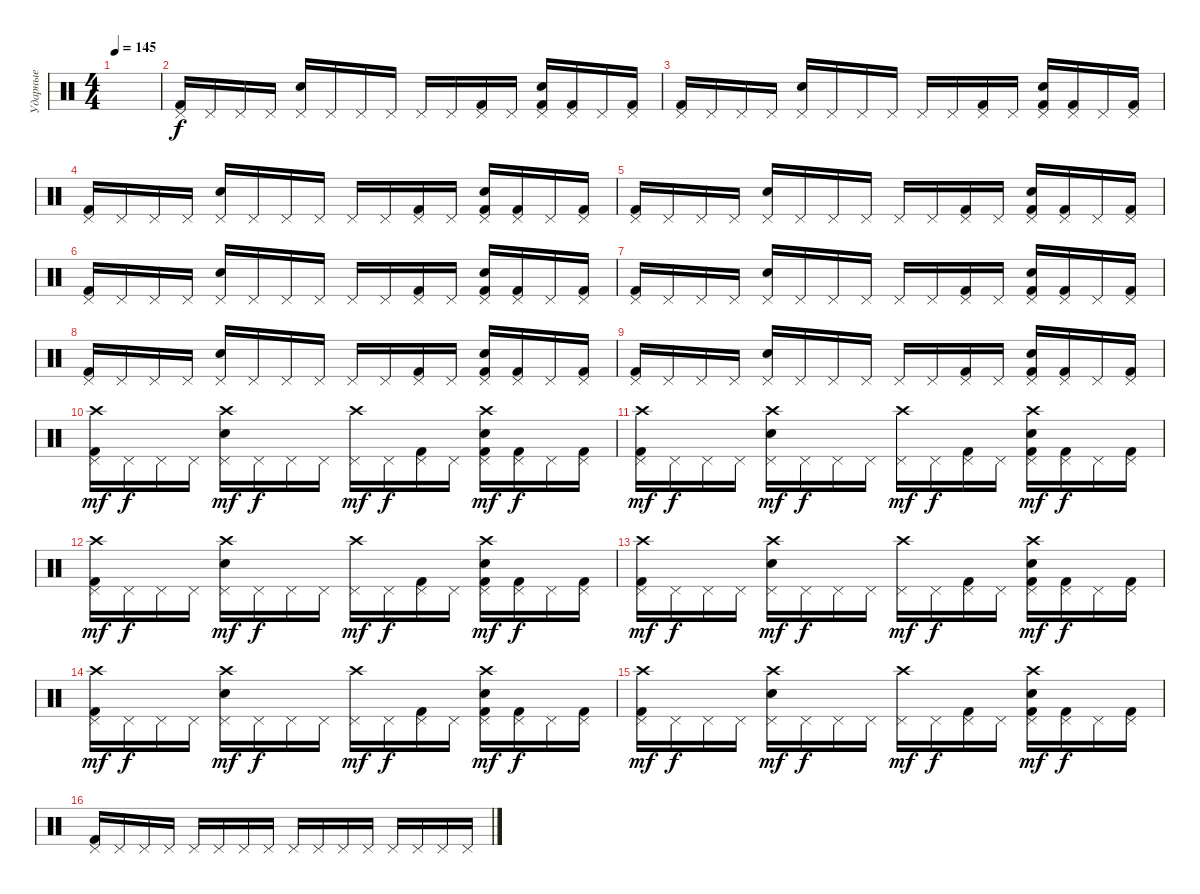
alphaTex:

\track ("Ударные" "Ударные") {instrument percussion}
\staff {score}
\articulation defaults
\ts (4 4)
\tempo 145
\clef neutral
\ks c
|
("Kick (hit) 2" "Pedal Hi-Hat (hit)").16 "Pedal Hi-Hat (hit)".16 "Pedal Hi-Hat (hit)".16 "Pedal Hi-Hat (hit)".16 ("Electric Snare (hit)" "Pedal Hi-Hat (hit)").16 "Pedal Hi-Hat (hit)".16 "Pedal Hi-Hat (hit)".16 "Pedal Hi-Hat (hit)".16 "Pedal Hi-Hat (hit)".16 "Pedal Hi-Hat (hit)".16 ("Kick (hit) 2" "Pedal Hi-Hat (hit)").16 "Pedal Hi-Hat (hit)".16 ("Kick (hit) 2" "Electric Snare (hit)" "Pedal Hi-Hat (hit)").16 ("Kick (hit) 2" "Pedal Hi-Hat (hit)").16 "Pedal Hi-Hat (hit)".16 ("Kick (hit) 2" "Pedal Hi-Hat (hit)").16 |
("Kick (hit) 2" "Pedal Hi-Hat (hit)").16 "Pedal Hi-Hat (hit)".16 "Pedal Hi-Hat (hit)".16 "Pedal Hi-Hat (hit)".16 ("Electric Snare (hit)" "Pedal Hi-Hat (hit)").16 "Pedal Hi-Hat (hit)".16 "Pedal Hi-Hat (hit)".16 "Pedal Hi-Hat (hit)".16 "Pedal Hi-Hat (hit)".16 "Pedal Hi-Hat (hit)".16 ("Kick (hit) 2" "Pedal Hi-Hat (hit)").16 "Pedal Hi-Hat (hit)".16 ("Kick (hit) 2" "Electric Snare (hit)" "Pedal Hi-Hat (hit)").16 ("Kick (hit) 2" "Pedal Hi-Hat (hit)").16 "Pedal Hi-Hat (hit)".16 ("Kick (hit) 2" "Pedal Hi-Hat (hit)").16 |
("Kick (hit) 2" "Pedal Hi-Hat (hit)").16 "Pedal Hi-Hat (hit)".16 "Pedal Hi-Hat (hit)".16 "Pedal Hi-Hat (hit)".16 ("Electric Snare (hit)" "Pedal Hi-Hat (hit)").16 "Pedal Hi-Hat (hit)".16 "Pedal Hi-Hat (hit)".16 "Pedal Hi-Hat (hit)".16 "Pedal Hi-Hat (hit)".16 "Pedal Hi-Hat (hit)".16 ("Kick (hit) 2" "Pedal Hi-Hat (hit)").16 "Pedal Hi-Hat (hit)".16 ("Kick (hit) 2" "Electric Snare (hit)" "Pedal Hi-Hat (hit)").16 ("Kick (hit) 2" "Pedal Hi-Hat (hit)").16 "Pedal Hi-Hat (hit)".16 ("Kick (hit) 2" "Pedal Hi-Hat (hit)").16 |
("Kick (hit) 2" "Pedal Hi-Hat (hit)").16 "Pedal Hi-Hat (hit)".16 "Pedal Hi-Hat (hit)".16 "Pedal Hi-Hat (hit)".16 ("Electric Snare (hit)" "Pedal Hi-Hat (hit)").16 "Pedal Hi-Hat (hit)".16 "Pedal Hi-Hat (hit)".16 "Pedal Hi-Hat (hit)".16 "Pedal Hi-Hat (hit)".16 "Pedal Hi-Hat (hit)".16 ("Kick (hit) 2" "Pedal Hi-Hat (hit)").16 "Pedal Hi-Hat (hit)".16 ("Kick (hit) 2" "Electric Snare (hit)" "Pedal Hi-Hat (hit)").16 ("Kick (hit) 2" "Pedal Hi-Hat (hit)").16 "Pedal Hi-Hat (hit)".16 ("Kick (hit) 2" "Pedal Hi-Hat (hit)").16 |
("Kick (hit) 2" "Pedal Hi-Hat (hit)").16 "Pedal Hi-Hat (hit)".16 "Pedal Hi-Hat (hit)".16 "Pedal Hi-Hat (hit)".16 ("Electric Snare (hit)" "Pedal Hi-Hat (hit)").16 "Pedal Hi-Hat (hit)".16 "Pedal Hi-Hat (hit)".16 "Pedal Hi-Hat (hit)".16 "Pedal Hi-Hat (hit)".16 "Pedal Hi-Hat (hit)".16 ("Kick (hit) 2" "Pedal Hi-Hat (hit)").16 "Pedal Hi-Hat (hit)".16 ("Kick (hit) 2" "Electric Snare (hit)" "Pedal Hi-Hat (hit)").16 ("Kick (hit) 2" "Pedal Hi-Hat (hit)").16 "Pedal Hi-Hat (hit)".16 ("Kick (hit) 2" "Pedal Hi-Hat (hit)").16 |
("Kick (hit) 2" "Pedal Hi-Hat (hit)").16 "Pedal Hi-Hat (hit)".16 "Pedal Hi-Hat (hit)".16 "Pedal Hi-Hat (hit)".16 ("Electric Snare (hit)" "Pedal Hi-Hat (hit)").16 "Pedal Hi-Hat (hit)".16 "Pedal Hi-Hat (hit)".16 "Pedal Hi-Hat (hit)".16 "Pedal Hi-Hat (hit)".16 "Pedal Hi-Hat (hit)".16 ("Kick (hit) 2" "Pedal Hi-Hat (hit)").16 "Pedal Hi-Hat (hit)".16 ("Kick (hit) 2" "Electric Snare (hit)" "Pedal Hi-Hat (hit)").16 ("Kick (hit) 2" "Pedal Hi-Hat (hit)").16 "Pedal Hi-Hat (hit)".16 ("Kick (hit) 2" "Pedal Hi-Hat (hit)").16 |
("Kick (hit) 2" "Pedal Hi-Hat (hit)").16 "Pedal Hi-Hat (hit)".16 "Pedal Hi-Hat (hit)".16 "Pedal Hi-Hat (hit)".16 ("Electric Snare (hit)" "Pedal Hi-Hat (hit)").16 "Pedal Hi-Hat (hit)".16 "Pedal Hi-Hat (hit)".16 "Pedal Hi-Hat (hit)".16 "Pedal Hi-Hat (hit)".16 "Pedal Hi-Hat (hit)".16 ("Kick (hit) 2" "Pedal Hi-Hat (hit)").16 "Pedal Hi-Hat (hit)".16 ("Kick (hit) 2" "Electric Snare (hit)" "Pedal Hi-Hat (hit)").16 ("Kick (hit) 2" "Pedal Hi-Hat (hit)").16 "Pedal Hi-Hat (hit)".16 ("Kick (hit) 2" "Pedal Hi-Hat (hit)").16 |
("Kick (hit) 2" "Pedal Hi-Hat (hit)").16 "Pedal Hi-Hat (hit)".16 "Pedal Hi-Hat (hit)".16 "Pedal Hi-Hat (hit)".16 ("Electric Snare (hit)" "Pedal Hi-Hat (hit)").16 "Pedal Hi-Hat (hit)".16 "Pedal Hi-Hat (hit)".16 "Pedal Hi-Hat (hit)".16 "Pedal Hi-Hat (hit)".16 "Pedal Hi-Hat (hit)".16 ("Kick (hit) 2" "Pedal Hi-Hat (hit)").16 "Pedal Hi-Hat (hit)".16 ("Kick (hit) 2" "Electric Snare (hit)" "Pedal Hi-Hat (hit)").16 ("Kick (hit) 2" "Pedal Hi-Hat (hit)").16 "Pedal Hi-Hat (hit)".16 ("Kick (hit) 2" "Pedal Hi-Hat (hit)").16 |
("Kick (hit) 2" "Pedal Hi-Hat (hit)" "Crash high (hit)").16{dy mf} "Pedal Hi-Hat (hit)".16{dy f} "Pedal Hi-Hat (hit)".16 "Pedal Hi-Hat (hit)".16 ("Electric Snare (hit)" "Pedal Hi-Hat (hit)" "Crash high (hit)").16{dy mf} "Pedal Hi-Hat (hit)".16{dy f} "Pedal Hi-Hat (hit)".16 "Pedal Hi-Hat (hit)".16 ("Pedal Hi-Hat (hit)" "Crash high (hit)").16{dy mf} "Pedal Hi-Hat (hit)".16{dy f} ("Kick (hit) 2" "Pedal Hi-Hat (hit)").16 "Pedal Hi-Hat (hit)".16 ("Kick (hit) 2" "Electric Snare (hit)" "Pedal Hi-Hat (hit)" "Crash high (hit)").16{dy mf} ("Kick (hit) 2" "Pedal Hi-Hat (hit)").16{dy f} "Pedal Hi-Hat (hit)".16 ("Kick (hit) 2" "Pedal Hi-Hat (hit)").16 |
("Crash high (hit)" "Kick (hit) 2" "Pedal Hi-Hat (hit)").16{dy mf} "Pedal Hi-Hat (hit)".16{dy f} "Pedal Hi-Hat (hit)".16 "Pedal Hi-Hat (hit)".16 ("Crash high (hit)" "Electric Snare (hit)" "Pedal Hi-Hat (hit)").16{dy mf} "Pedal Hi-Hat (hit)".16{dy f} "Pedal Hi-Hat (hit)".16 "Pedal Hi-Hat (hit)".16 ("Crash high (hit)" "Pedal Hi-Hat (hit)").16{dy mf} "Pedal Hi-Hat (hit)".16{dy f} ("Kick (hit) 2" "Pedal Hi-Hat (hit)").16 "Pedal Hi-Hat (hit)".16 ("Crash high (hit)" "Kick (hit) 2" "Electric Snare (hit)" "Pedal Hi-Hat (hit)").16{dy mf} ("Kick (hit) 2" "Pedal Hi-Hat (hit)").16{dy f} "Pedal Hi-Hat (hit)".16 ("Kick (hit) 2" "Pedal Hi-Hat (hit)").16 |
("Crash high (hit)" "Kick (hit) 2" "Pedal Hi-Hat (hit)").16{dy mf} "Pedal Hi-Hat (hit)".16{dy f} "Pedal Hi-Hat (hit)".16 "Pedal Hi-Hat (hit)".16 ("Crash high (hit)" "Electric Snare (hit)" "Pedal Hi-Hat (hit)").16{dy mf} "Pedal Hi-Hat (hit)".16{dy f} "Pedal Hi-Hat (hit)".16 "Pedal Hi-Hat (hit)".16 ("Crash high (hit)" "Pedal Hi-Hat (hit)").16{dy mf} "Pedal Hi-Hat (hit)".16{dy f} ("Kick (hit) 2" "Pedal Hi-Hat (hit)").16 "Pedal Hi-Hat (hit)".16 ("Crash high (hit)" "Kick (hit) 2" "Electric Snare (hit)" "Pedal Hi-Hat (hit)").16{dy mf} ("Kick (hit) 2" "Pedal Hi-Hat (hit)").16{dy f} "Pedal Hi-Hat (hit)".16 ("Kick (hit) 2" "Pedal Hi-Hat (hit)").16 |
("Crash high (hit)" "Kick (hit) 2" "Pedal Hi-Hat (hit)").16{dy mf} "Pedal Hi-Hat (hit)".16{dy f} "Pedal Hi-Hat (hit)".16 "Pedal Hi-Hat (hit)".16 ("Crash high (hit)" "Electric Snare (hit)" "Pedal Hi-Hat (hit)").16{dy mf} "Pedal Hi-Hat (hit)".16{dy f} "Pedal Hi-Hat (hit)".16 "Pedal Hi-Hat (hit)".16 ("Crash high (hit)" "Pedal Hi-Hat (hit)").16{dy mf} "Pedal Hi-Hat (hit)".16{dy f} ("Kick (hit) 2" "Pedal Hi-Hat (hit)").16 "Pedal Hi-Hat (hit)".16 ("Crash high (hit)" "Kick (hit) 2" "Electric Snare (hit)" "Pedal Hi-Hat (hit)").16{dy mf} ("Kick (hit) 2" "Pedal Hi-Hat (hit)").16{dy f} "Pedal Hi-Hat (hit)".16 ("Kick (hit) 2" "Pedal Hi-Hat (hit)").16 |
("Crash high (hit)" "Kick (hit) 2" "Pedal Hi-Hat (hit)").16{dy mf} "Pedal Hi-Hat (hit)".16{dy f} "Pedal Hi-Hat (hit)".16 "Pedal Hi-Hat (hit)".16 ("Crash high (hit)" "Electric Snare (hit)" "Pedal Hi-Hat (hit)").16{dy mf} "Pedal Hi-Hat (hit)".16{dy f} "Pedal Hi-Hat (hit)".16 "Pedal Hi-Hat (hit)".16 ("Crash high (hit)" "Pedal Hi-Hat (hit)").16{dy mf} "Pedal Hi-Hat (hit)".16{dy f} ("Kick (hit) 2" "Pedal Hi-Hat (hit)").16 "Pedal Hi-Hat (hit)".16 ("Crash high (hit)" "Kick (hit) 2" "Electric Snare (hit)" "Pedal Hi-Hat (hit)").16{dy mf} ("Kick (hit) 2" "Pedal Hi-Hat (hit)").16{dy f} "Pedal Hi-Hat (hit)".16 ("Kick (hit) 2" "Pedal Hi-Hat (hit)").16 |
("Kick (hit) 2" "Pedal Hi-Hat (hit)" "Crash high (hit)").16{dy mf} "Pedal Hi-Hat (hit)".16{dy f} "Pedal Hi-Hat (hit)".16 "Pedal Hi-Hat (hit)".16 ("Electric Snare (hit)" "Pedal Hi-Hat (hit)" "Crash high (hit)").16{dy mf} "Pedal Hi-Hat (hit)".16{dy f} "Pedal Hi-Hat (hit)".16 "Pedal Hi-Hat (hit)".16 ("Pedal Hi-Hat (hit)" "Crash high (hit)").16{dy mf} "Pedal Hi-Hat (hit)".16{dy f} ("Kick (hit) 2" "Pedal Hi-Hat (hit)").16 "Pedal Hi-Hat (hit)".16 ("Kick (hit) 2" "Electric Snare (hit)" "Pedal Hi-Hat (hit)" "Crash high (hit)").16{dy mf} ("Kick (hit) 2" "Pedal Hi-Hat (hit)").16{dy f} "Pedal Hi-Hat (hit)".16 ("Kick (hit) 2" "Pedal Hi-Hat (hit)").16 |
("Kick (hit) 2" "Pedal Hi-Hat (hit)").16 "Pedal Hi-Hat (hit)".16 "Pedal Hi-Hat (hit)".16 "Pedal Hi-Hat (hit)".16 "Pedal Hi-Hat (hit)".16 "Pedal Hi-Hat (hit)".16 "Pedal Hi-Hat (hit)".16 "Pedal Hi-Hat (hit)".16 "Pedal Hi-Hat (hit)".16 "Pedal Hi-Hat (hit)".16 "Pedal Hi-Hat (hit)".16 "Pedal Hi-Hat (hit)".16 "Pedal Hi-Hat (hit)".16 "Pedal Hi-Hat (hit)".16 "Pedal Hi-Hat (hit)".16 "Pedal Hi-Hat (hit)".16
